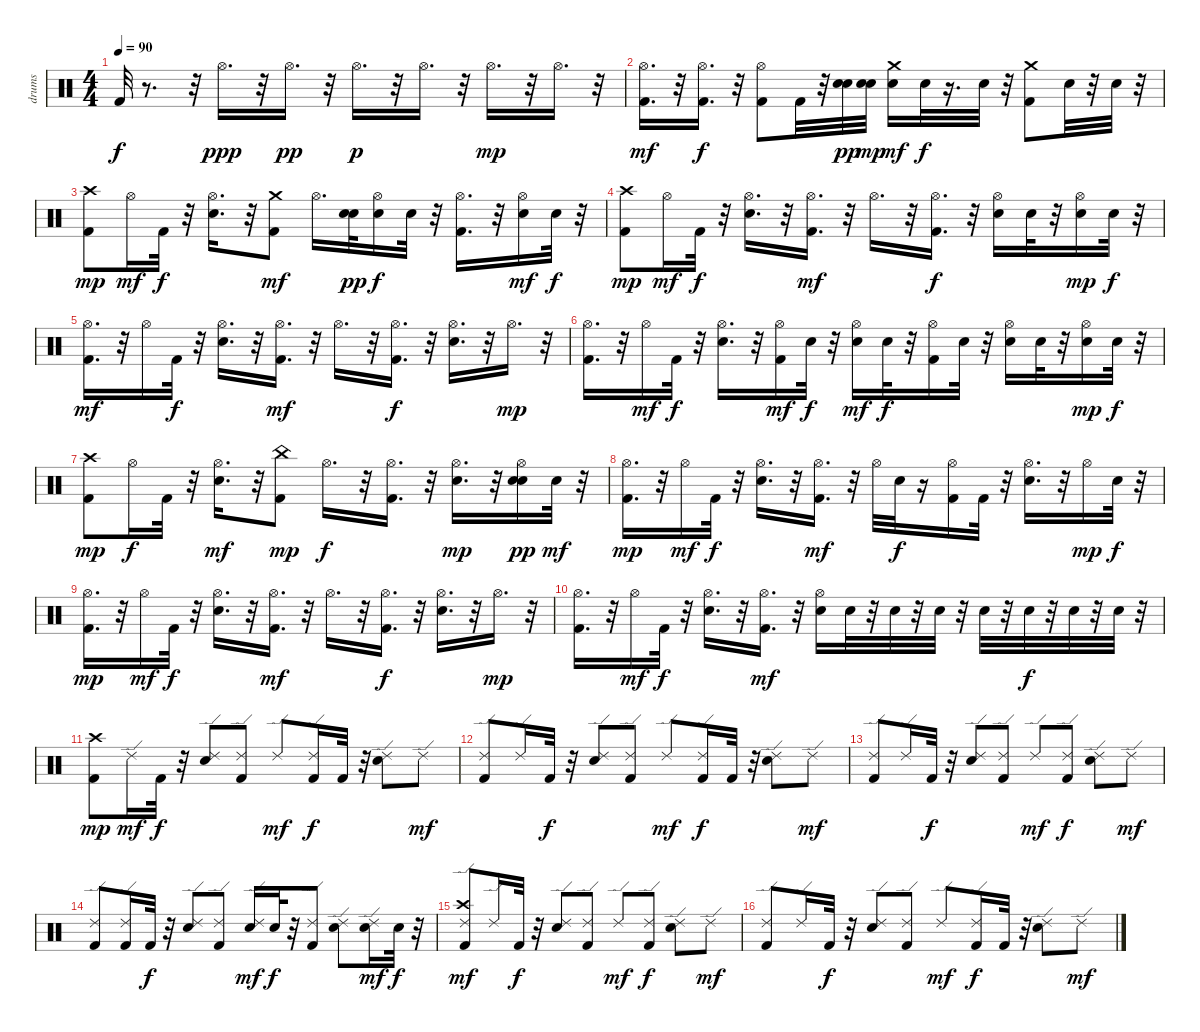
\track ("drums" "drums") {instrument percussion}
\staff {score}
\articulation defaults
\ts (4 4)
\tempo 90
\clef neutral
\ks c "Kick (hit) 2".32{dy f}
r.8{d} r.32 "Hi-Hat (open)".16{d dy ppp} r.32 "Hi-Hat (open)".16{d dy pp} r.32 "Hi-Hat (open)".16{d dy p} r.32 "Hi-Hat (open)".16{d} r.32 "Hi-Hat (open)".16{d dy mp} r.32 "Hi-Hat (open)".16{d} r.32 |
("Kick (hit) 2" "Hi-Hat (open)").16{d dy mf} r.32 ("Kick (hit) 2" "Hi-Hat (open)").16{d dy f} r.32 ("Kick (hit) 2" "Hi-Hat (open)").8 "Kick (hit) 2".32 r.32 ("Snare (hit) 2" "Snare (hit) 2").32{dy pp} ("Snare (hit) 2" "Snare (hit) 2").32{dy mp} ("Snare (hit) 2" "Crash medium (hit)").16{dy mf} "Snare (hit) 2".32{dy f} r.16{d} "Snare (hit) 2".32 r.32 ("Kick (hit) 2" "Crash medium (hit)").8 "Snare (hit) 2".32 r.32 "Snare (hit) 2".32 r.32 |
("Kick (hit) 2" "Crash high (hit)").8{dy mp} "Hi-Hat (open)".16{dy mf} "Kick (hit) 2".32{dy f} r.32 ("Snare (hit) 2" "Hi-Hat (open)").16{d} r.32 ("Kick (hit) 2" "Crash medium (hit)").8{dy mf} "Hi-Hat (open)".16{d} ("Snare (hit) 2" "Snare (hit) 2").32{dy pp} ("Snare (hit) 2" "Hi-Hat (open)").16{dy f} "Snare (hit) 2".32 r.32 ("Kick (hit) 2" "Hi-Hat (open)").16{d} r.32 ("Snare (hit) 2" "Hi-Hat (open)").16{dy mf} "Snare (hit) 2".32{dy f} r.32 |
("Kick (hit) 2" "Crash high (hit)").8{dy mp} "Hi-Hat (open)".16{dy mf} "Kick (hit) 2".32{dy f} r.32 ("Snare (hit) 2" "Hi-Hat (open)").16{d} r.32 ("Kick (hit) 2" "Hi-Hat (open)").16{d dy mf} r.32 "Hi-Hat (open)".16{d} r.32 ("Kick (hit) 2" "Hi-Hat (open)").16{d dy f} r.32 ("Snare (hit) 2" "Hi-Hat (open)").16 "Snare (hit) 2".32 r.32 ("Snare (hit) 2" "Hi-Hat (open)").16{dy mp} "Snare (hit) 2".32{dy f} r.32 |
("Kick (hit) 2" "Hi-Hat (open)").16{d dy mf} r.32 "Hi-Hat (open)".16 "Kick (hit) 2".32{dy f} r.32 ("Snare (hit) 2" "Hi-Hat (open)").16{d} r.32 ("Kick (hit) 2" "Hi-Hat (open)").16{d dy mf} r.32 "Hi-Hat (open)".16{d} r.32 ("Kick (hit) 2" "Hi-Hat (open)").16{d dy f} r.32 ("Snare (hit) 2" "Hi-Hat (open)").16{d} r.32 "Hi-Hat (open)".16{d dy mp} r.32 |
("Kick (hit) 2" "Hi-Hat (open)").16{d} r.32 "Hi-Hat (open)".16{dy mf} "Kick (hit) 2".32{dy f} r.32 ("Snare (hit) 2" "Hi-Hat (open)").16{d} r.32 ("Kick (hit) 2" "Hi-Hat (open)").16{dy mf} "Snare (hit) 2".32{dy f} r.32 ("Snare (hit) 2" "Hi-Hat (open)").16{dy mf} "Snare (hit) 2".32{dy f} r.32 ("Kick (hit) 2" "Hi-Hat (open)").16 "Snare (hit) 2".32 r.32 ("Snare (hit) 2" "Hi-Hat (open)").16 "Snare (hit) 2".32 r.32 ("Snare (hit) 2" "Hi-Hat (open)").16{dy mp} "Snare (hit) 2".32{dy f} r.32 |
("Kick (hit) 2" "Crash high (hit)").8{dy mp} "Hi-Hat (open)".16{dy f} "Kick (hit) 2".32 r.32 ("Snare (hit) 2" "Hi-Hat (open)").16{d dy mf} r.32 ("Kick (hit) 2" "China (hit)").8{dy mp} "Hi-Hat (open)".16{d dy f} r.32 ("Kick (hit) 2" "Hi-Hat (open)").16{d} r.32 ("Snare (hit) 2" "Hi-Hat (open)").16{d dy mp} r.32 ("Snare (hit) 2" "Hi-Hat (open)" "Snare (hit) 2").16{dy pp} "Snare (hit) 2".32{dy mf} r.32 |
("Kick (hit) 2" "Hi-Hat (open)").16{d dy mp} r.32 "Hi-Hat (open)".16{dy mf} "Kick (hit) 2".32{dy f} r.32 ("Snare (hit) 2" "Hi-Hat (open)").16{d} r.32 ("Kick (hit) 2" "Hi-Hat (open)").16{d dy mf} r.32 "Hi-Hat (open)".32 "Snare (hit) 2".32{dy f} r.16 ("Kick (hit) 2" "Hi-Hat (open)").16 "Kick (hit) 2".32 r.32 ("Snare (hit) 2" "Hi-Hat (open)").16{d} r.32 "Hi-Hat (open)".16{dy mp} "Snare (hit) 2".32{dy f} r.32 |
("Kick (hit) 2" "Hi-Hat (open)").16{d dy mp} r.32 "Hi-Hat (open)".16{dy mf} "Kick (hit) 2".32{dy f} r.32 ("Snare (hit) 2" "Hi-Hat (open)").16{d} r.32 ("Kick (hit) 2" "Hi-Hat (open)").16{d dy mf} r.32 "Hi-Hat (open)".16{d} r.32 ("Kick (hit) 2" "Hi-Hat (open)").16{d dy f} r.32 ("Snare (hit) 2" "Hi-Hat (open)").16{d} r.32 "Hi-Hat (open)".16{d dy mp} r.32 |
("Kick (hit) 2" "Hi-Hat (open)").16{d} r.32 "Hi-Hat (open)".16{dy mf} "Kick (hit) 2".32{dy f} r.32 ("Snare (hit) 2" "Hi-Hat (open)").16{d} r.32 ("Kick (hit) 2" "Hi-Hat (open)").16{d dy mf} r.32 ("Snare (hit) 2" "Hi-Hat (open)").16 "Snare (hit) 2".32 r.32 "Snare (hit) 2".32 r.32 "Snare (hit) 2".32 r.32 "Snare (hit) 2".32 r.32 "Snare (hit) 2".32{dy f} r.32 "Snare (hit) 2".32 r.32 "Snare (hit) 2".32 r.32 |
("Kick (hit) 2" "Crash high (hit)").8{dy mp} "Ride (edge) 2".16{dy mf} "Kick (hit) 2".32{dy f} r.32 ("Snare (hit) 2" "Ride (edge) 2").8 ("Kick (hit) 2" "Ride (edge) 2").8 "Ride (edge) 2".8{dy mf} ("Kick (hit) 2" "Ride (edge) 2").16{dy f} "Kick (hit) 2".32 r.32 ("Snare (hit) 2" "Ride (edge) 2").8 "Ride (edge) 2".8{dy mf} |
("Kick (hit) 2" "Ride (edge) 2").8 "Ride (edge) 2".16 "Kick (hit) 2".32{dy f} r.32 ("Snare (hit) 2" "Ride (edge) 2").8 ("Kick (hit) 2" "Ride (edge) 2").8 "Ride (edge) 2".8{dy mf} ("Kick (hit) 2" "Ride (edge) 2").16{dy f} "Kick (hit) 2".32 r.32 ("Snare (hit) 2" "Ride (edge) 2").8 "Ride (edge) 2".8{dy mf} |
("Kick (hit) 2" "Ride (edge) 2").8 "Ride (edge) 2".16 "Kick (hit) 2".32{dy f} r.32 ("Snare (hit) 2" "Ride (edge) 2").8 ("Kick (hit) 2" "Ride (edge) 2").8 "Ride (edge) 2".8{dy mf} ("Kick (hit) 2" "Ride (edge) 2").8{dy f} ("Snare (hit) 2" "Ride (edge) 2").8 "Ride (edge) 2".8{dy mf} |
("Kick (hit) 2" "Ride (edge) 2").8 ("Kick (hit) 2" "Ride (edge) 2").16 "Kick (hit) 2".32{dy f} r.32 ("Snare (hit) 2" "Ride (edge) 2").8 ("Kick (hit) 2" "Ride (edge) 2").8 ("Snare (hit) 2" "Ride (edge) 2").16{dy mf} "Snare (hit) 2".32{dy f} r.32 ("Kick (hit) 2" "Ride (edge) 2").8 ("Snare (hit) 2" "Ride (edge) 2").8 ("Snare (hit) 2" "Ride (edge) 2").16{dy mf} "Snare (hit) 2".32{dy f} r.32 |
("Kick (hit) 2" "Crash high (hit)" "Ride (edge) 2").8{dy mf} "Ride (edge) 2".16 "Kick (hit) 2".32{dy f} r.32 ("Snare (hit) 2" "Ride (edge) 2").8 ("Kick (hit) 2" "Ride (edge) 2").8 "Ride (edge) 2".8{dy mf} ("Kick (hit) 2" "Ride (edge) 2").8{dy f} ("Snare (hit) 2" "Ride (edge) 2").8 "Ride (edge) 2".8{dy mf} |
("Kick (hit) 2" "Ride (edge) 2").8 "Ride (edge) 2".16 "Kick (hit) 2".32{dy f} r.32 ("Snare (hit) 2" "Ride (edge) 2").8 ("Kick (hit) 2" "Ride (edge) 2").8 "Ride (edge) 2".8{dy mf} ("Kick (hit) 2" "Ride (edge) 2").16{dy f} "Kick (hit) 2".32 r.32 ("Snare (hit) 2" "Ride (edge) 2").8 "Ride (edge) 2".8{dy mf}
